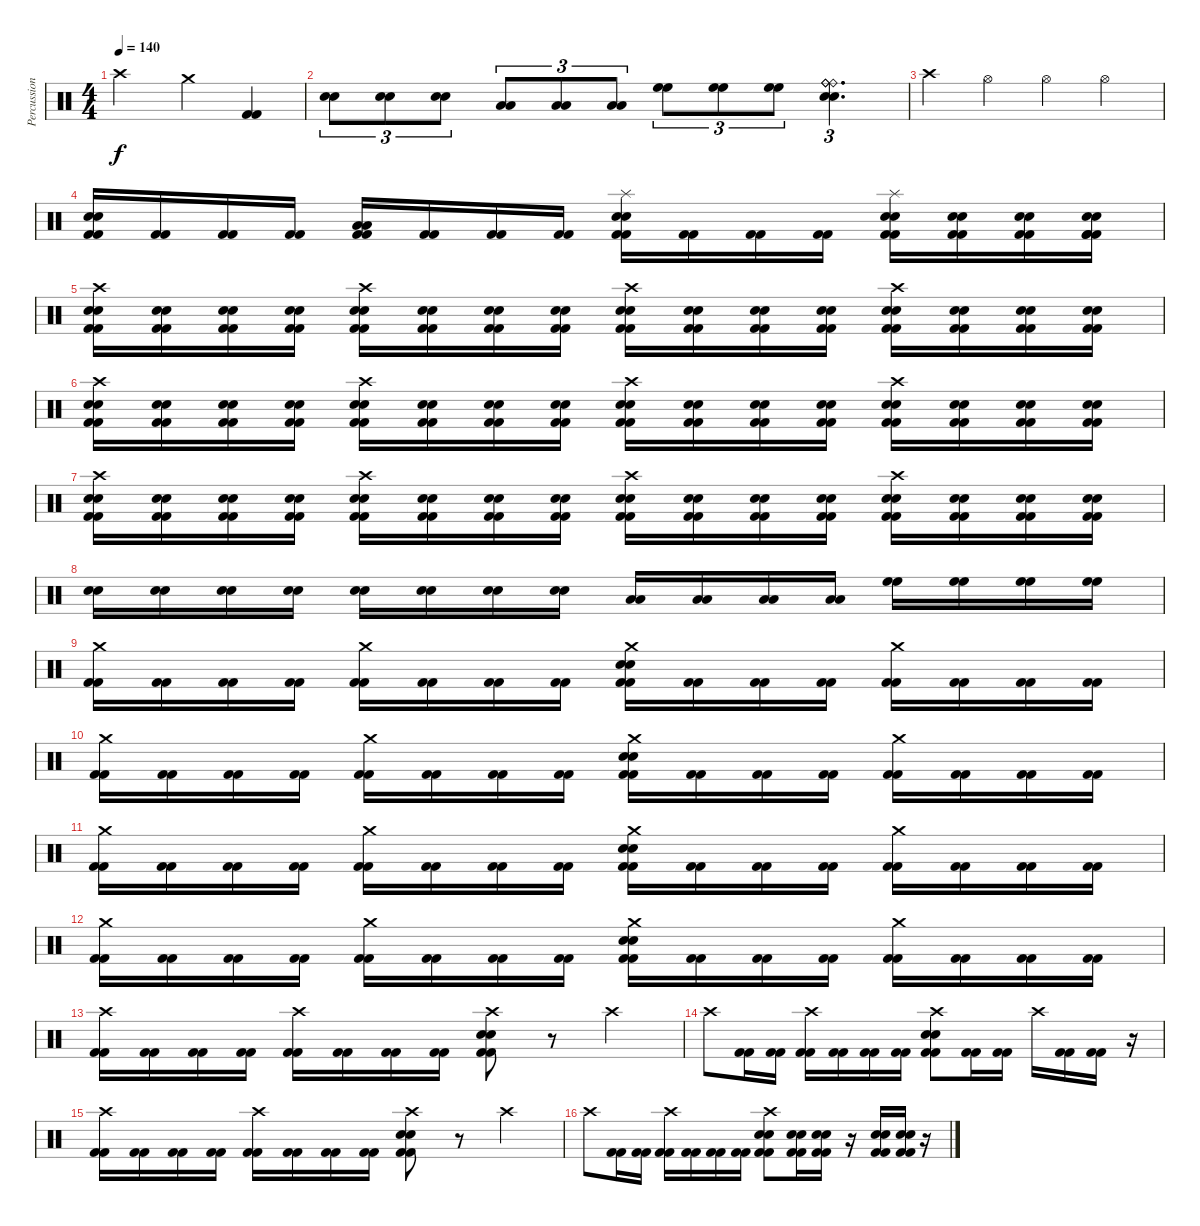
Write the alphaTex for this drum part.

\track ("Percussions" "Percussion") {instrument percussion}
\staff {score}
\articulation defaults
\ts (4 4)
\tempo 140
\clef neutral
\ks c "Crash high (hit)".2{dy f} "Crash medium (hit)".4
("Kick (hit) 2" "Kick (hit) 2").4 |
("Electric Snare (hit)" "Electric Snare (hit)").8{tu (3 2)} ("Electric Snare (hit)" "Electric Snare (hit)").8{tu (3 2)} ("Electric Snare (hit)" "Electric Snare (hit)").8{tu (3 2)} ("Low Tom (hit)" "Low Tom (hit)").8{tu (3 2)} ("Low Tom (hit)" "Low Tom (hit)").8{tu (3 2)} ("Low Tom (hit)" "Low Tom (hit)").8{tu (3 2)} ("High Floor Tom (hit)" "High Floor Tom (hit)").8{tu (3 2)} ("High Floor Tom (hit)" "High Floor Tom (hit)").8{tu (3 2)} ("High Floor Tom (hit)" "High Floor Tom (hit)").8{tu (3 2)} ("Electric Snare (hit)" "Electric Snare (hit)" "Ride (bell)" "Ride (bell)" "Ride (bell)").4{d tu (3 2)} |
"Crash high (hit)".4 "Hi-Hat (open)".4 "Hi-Hat (open)".4 "Hi-Hat (open)".4 |
("Electric Snare (hit)" "Electric Snare (hit)" "Kick (hit) 2" "Kick (hit) 2").16 ("Kick (hit) 2" "Kick (hit) 2").16 ("Kick (hit) 2" "Kick (hit) 2").16 ("Kick (hit) 2" "Kick (hit) 2").16 ("Low Tom (hit)" "Low Tom (hit)" "Kick (hit) 2" "Kick (hit) 2").16 ("Kick (hit) 2" "Kick (hit) 2").16 ("Kick (hit) 2" "Kick (hit) 2").16 ("Kick (hit) 2" "Kick (hit) 2").16 ("Electric Snare (hit)" "Electric Snare (hit)" "Kick (hit) 2" "Kick (hit) 2" "Splash (hit)").16 ("Kick (hit) 2" "Kick (hit) 2").16 ("Kick (hit) 2" "Kick (hit) 2").16 ("Kick (hit) 2" "Kick (hit) 2").16 ("Electric Snare (hit)" "Electric Snare (hit)" "Kick (hit) 2" "Kick (hit) 2" "Splash (hit)").16 ("Electric Snare (hit)" "Electric Snare (hit)" "Kick (hit) 2" "Kick (hit) 2").16 ("Electric Snare (hit)" "Electric Snare (hit)" "Kick (hit) 2" "Kick (hit) 2").16 ("Electric Snare (hit)" "Electric Snare (hit)" "Kick (hit) 2" "Kick (hit) 2" "Kick (hit) 2").16 |
("Crash high (hit)" "Electric Snare (hit)" "Electric Snare (hit)" "Kick (hit) 2" "Kick (hit) 2").16 ("Electric Snare (hit)" "Electric Snare (hit)" "Kick (hit) 2" "Kick (hit) 2").16 ("Electric Snare (hit)" "Electric Snare (hit)" "Kick (hit) 2" "Kick (hit) 2").16 ("Electric Snare (hit)" "Electric Snare (hit)" "Kick (hit) 2" "Kick (hit) 2").16 ("Crash high (hit)" "Electric Snare (hit)" "Electric Snare (hit)" "Kick (hit) 2" "Kick (hit) 2").16 ("Electric Snare (hit)" "Electric Snare (hit)" "Kick (hit) 2" "Kick (hit) 2").16 ("Electric Snare (hit)" "Electric Snare (hit)" "Kick (hit) 2" "Kick (hit) 2").16 ("Electric Snare (hit)" "Electric Snare (hit)" "Kick (hit) 2" "Kick (hit) 2").16 ("Crash high (hit)" "Electric Snare (hit)" "Electric Snare (hit)" "Kick (hit) 2" "Kick (hit) 2").16 ("Electric Snare (hit)" "Electric Snare (hit)" "Kick (hit) 2" "Kick (hit) 2").16 ("Electric Snare (hit)" "Electric Snare (hit)" "Kick (hit) 2" "Kick (hit) 2").16 ("Electric Snare (hit)" "Electric Snare (hit)" "Kick (hit) 2" "Kick (hit) 2").16 ("Crash high (hit)" "Electric Snare (hit)" "Electric Snare (hit)" "Kick (hit) 2" "Kick (hit) 2").16 ("Electric Snare (hit)" "Electric Snare (hit)" "Kick (hit) 2" "Kick (hit) 2").16 ("Electric Snare (hit)" "Electric Snare (hit)" "Kick (hit) 2" "Kick (hit) 2").16 ("Electric Snare (hit)" "Electric Snare (hit)" "Kick (hit) 2" "Kick (hit) 2").16 |
("Crash high (hit)" "Electric Snare (hit)" "Electric Snare (hit)" "Kick (hit) 2" "Kick (hit) 2").16 ("Electric Snare (hit)" "Electric Snare (hit)" "Kick (hit) 2" "Kick (hit) 2").16 ("Electric Snare (hit)" "Electric Snare (hit)" "Kick (hit) 2" "Kick (hit) 2").16 ("Electric Snare (hit)" "Electric Snare (hit)" "Kick (hit) 2" "Kick (hit) 2").16 ("Crash high (hit)" "Electric Snare (hit)" "Electric Snare (hit)" "Kick (hit) 2" "Kick (hit) 2").16 ("Electric Snare (hit)" "Electric Snare (hit)" "Kick (hit) 2" "Kick (hit) 2").16 ("Electric Snare (hit)" "Electric Snare (hit)" "Kick (hit) 2" "Kick (hit) 2").16 ("Electric Snare (hit)" "Electric Snare (hit)" "Kick (hit) 2" "Kick (hit) 2").16 ("Crash high (hit)" "Electric Snare (hit)" "Electric Snare (hit)" "Kick (hit) 2" "Kick (hit) 2").16 ("Electric Snare (hit)" "Electric Snare (hit)" "Kick (hit) 2" "Kick (hit) 2").16 ("Electric Snare (hit)" "Electric Snare (hit)" "Kick (hit) 2" "Kick (hit) 2").16 ("Electric Snare (hit)" "Electric Snare (hit)" "Kick (hit) 2" "Kick (hit) 2").16 ("Crash high (hit)" "Electric Snare (hit)" "Electric Snare (hit)" "Kick (hit) 2" "Kick (hit) 2").16 ("Electric Snare (hit)" "Electric Snare (hit)" "Kick (hit) 2" "Kick (hit) 2").16 ("Electric Snare (hit)" "Electric Snare (hit)" "Kick (hit) 2" "Kick (hit) 2").16 ("Electric Snare (hit)" "Electric Snare (hit)" "Kick (hit) 2" "Kick (hit) 2").16 |
("Crash high (hit)" "Electric Snare (hit)" "Electric Snare (hit)" "Kick (hit) 2" "Kick (hit) 2").16 ("Electric Snare (hit)" "Electric Snare (hit)" "Kick (hit) 2" "Kick (hit) 2").16 ("Electric Snare (hit)" "Electric Snare (hit)" "Kick (hit) 2" "Kick (hit) 2").16 ("Electric Snare (hit)" "Electric Snare (hit)" "Kick (hit) 2" "Kick (hit) 2").16 ("Crash high (hit)" "Electric Snare (hit)" "Electric Snare (hit)" "Kick (hit) 2" "Kick (hit) 2").16 ("Electric Snare (hit)" "Electric Snare (hit)" "Kick (hit) 2" "Kick (hit) 2").16 ("Electric Snare (hit)" "Electric Snare (hit)" "Kick (hit) 2" "Kick (hit) 2").16 ("Electric Snare (hit)" "Electric Snare (hit)" "Kick (hit) 2" "Kick (hit) 2").16 ("Crash high (hit)" "Electric Snare (hit)" "Electric Snare (hit)" "Kick (hit) 2" "Kick (hit) 2").16 ("Electric Snare (hit)" "Electric Snare (hit)" "Kick (hit) 2" "Kick (hit) 2").16 ("Electric Snare (hit)" "Electric Snare (hit)" "Kick (hit) 2" "Kick (hit) 2").16 ("Electric Snare (hit)" "Electric Snare (hit)" "Kick (hit) 2" "Kick (hit) 2").16 ("Crash high (hit)" "Electric Snare (hit)" "Electric Snare (hit)" "Kick (hit) 2" "Kick (hit) 2").16 ("Electric Snare (hit)" "Electric Snare (hit)" "Kick (hit) 2" "Kick (hit) 2").16 ("Electric Snare (hit)" "Electric Snare (hit)" "Kick (hit) 2" "Kick (hit) 2").16 ("Electric Snare (hit)" "Electric Snare (hit)" "Kick (hit) 2" "Kick (hit) 2").16 |
("Electric Snare (hit)" "Electric Snare (hit)").16 ("Electric Snare (hit)" "Electric Snare (hit)").16 ("Electric Snare (hit)" "Electric Snare (hit)").16 ("Electric Snare (hit)" "Electric Snare (hit)").16 ("Electric Snare (hit)" "Electric Snare (hit)").16 ("Electric Snare (hit)" "Electric Snare (hit)").16 ("Electric Snare (hit)" "Electric Snare (hit)").16 ("Electric Snare (hit)" "Electric Snare (hit)").16 ("Low Tom (hit)" "Low Tom (hit)").16 ("Low Tom (hit)" "Low Tom (hit)").16 ("Low Tom (hit)" "Low Tom (hit)").16 ("Low Tom (hit)" "Low Tom (hit)").16 ("High Floor Tom (hit)" "High Floor Tom (hit)").16 ("High Floor Tom (hit)" "High Floor Tom (hit)").16 ("High Floor Tom (hit)" "High Floor Tom (hit)").16 ("High Floor Tom (hit)" "High Floor Tom (hit)").16 |
("Crash medium (hit)" "Kick (hit) 2" "Kick (hit) 2").16 ("Kick (hit) 2" "Kick (hit) 2").16 ("Kick (hit) 2" "Kick (hit) 2").16 ("Kick (hit) 2" "Kick (hit) 2").16 ("Crash medium (hit)" "Kick (hit) 2" "Kick (hit) 2").16 ("Kick (hit) 2" "Kick (hit) 2").16 ("Kick (hit) 2" "Kick (hit) 2").16 ("Kick (hit) 2" "Kick (hit) 2").16 ("Crash medium (hit)" "Electric Snare (hit)" "Electric Snare (hit)" "Kick (hit) 2" "Kick (hit) 2").16 ("Kick (hit) 2" "Kick (hit) 2").16 ("Kick (hit) 2" "Kick (hit) 2").16 ("Kick (hit) 2" "Kick (hit) 2").16 ("Crash medium (hit)" "Kick (hit) 2" "Kick (hit) 2").16 ("Kick (hit) 2" "Kick (hit) 2").16 ("Kick (hit) 2" "Kick (hit) 2").16 ("Kick (hit) 2" "Kick (hit) 2").16 |
("Crash medium (hit)" "Kick (hit) 2" "Kick (hit) 2").16 ("Kick (hit) 2" "Kick (hit) 2").16 ("Kick (hit) 2" "Kick (hit) 2").16 ("Kick (hit) 2" "Kick (hit) 2").16 ("Crash medium (hit)" "Kick (hit) 2" "Kick (hit) 2").16 ("Kick (hit) 2" "Kick (hit) 2").16 ("Kick (hit) 2" "Kick (hit) 2").16 ("Kick (hit) 2" "Kick (hit) 2").16 ("Crash medium (hit)" "Electric Snare (hit)" "Electric Snare (hit)" "Kick (hit) 2" "Kick (hit) 2").16 ("Kick (hit) 2" "Kick (hit) 2").16 ("Kick (hit) 2" "Kick (hit) 2").16 ("Kick (hit) 2" "Kick (hit) 2").16 ("Crash medium (hit)" "Kick (hit) 2" "Kick (hit) 2").16 ("Kick (hit) 2" "Kick (hit) 2").16 ("Kick (hit) 2" "Kick (hit) 2").16 ("Kick (hit) 2" "Kick (hit) 2").16 |
("Crash medium (hit)" "Kick (hit) 2" "Kick (hit) 2").16 ("Kick (hit) 2" "Kick (hit) 2").16 ("Kick (hit) 2" "Kick (hit) 2").16 ("Kick (hit) 2" "Kick (hit) 2").16 ("Crash medium (hit)" "Kick (hit) 2" "Kick (hit) 2").16 ("Kick (hit) 2" "Kick (hit) 2").16 ("Kick (hit) 2" "Kick (hit) 2").16 ("Kick (hit) 2" "Kick (hit) 2").16 ("Crash medium (hit)" "Electric Snare (hit)" "Electric Snare (hit)" "Kick (hit) 2" "Kick (hit) 2").16 ("Kick (hit) 2" "Kick (hit) 2").16 ("Kick (hit) 2" "Kick (hit) 2").16 ("Kick (hit) 2" "Kick (hit) 2").16 ("Crash medium (hit)" "Kick (hit) 2" "Kick (hit) 2").16 ("Kick (hit) 2" "Kick (hit) 2").16 ("Kick (hit) 2" "Kick (hit) 2").16 ("Kick (hit) 2" "Kick (hit) 2").16 |
("Crash medium (hit)" "Kick (hit) 2" "Kick (hit) 2").16 ("Kick (hit) 2" "Kick (hit) 2").16 ("Kick (hit) 2" "Kick (hit) 2").16 ("Kick (hit) 2" "Kick (hit) 2").16 ("Crash medium (hit)" "Kick (hit) 2" "Kick (hit) 2").16 ("Kick (hit) 2" "Kick (hit) 2").16 ("Kick (hit) 2" "Kick (hit) 2").16 ("Kick (hit) 2" "Kick (hit) 2").16 ("Crash medium (hit)" "Electric Snare (hit)" "Electric Snare (hit)" "Kick (hit) 2" "Kick (hit) 2").16 ("Kick (hit) 2" "Kick (hit) 2").16 ("Kick (hit) 2" "Kick (hit) 2").16 ("Kick (hit) 2" "Kick (hit) 2").16 ("Crash medium (hit)" "Kick (hit) 2" "Kick (hit) 2").16 ("Kick (hit) 2" "Kick (hit) 2").16 ("Kick (hit) 2" "Kick (hit) 2").16 ("Kick (hit) 2" "Kick (hit) 2").16 |
("Crash high (hit)" "Kick (hit) 2" "Kick (hit) 2").16 ("Kick (hit) 2" "Kick (hit) 2").16 ("Kick (hit) 2" "Kick (hit) 2").16 ("Kick (hit) 2" "Kick (hit) 2").16 ("Crash high (hit)" "Kick (hit) 2" "Kick (hit) 2").16 ("Kick (hit) 2" "Kick (hit) 2").16 ("Kick (hit) 2" "Kick (hit) 2").16 ("Kick (hit) 2" "Kick (hit) 2").16 ("Crash high (hit)" "Electric Snare (hit)" "Electric Snare (hit)" "Kick (hit) 2" "Kick (hit) 2").8 r.8 "Crash high (hit)".4 |
"Crash high (hit)".8 ("Kick (hit) 2" "Kick (hit) 2").16 ("Kick (hit) 2" "Kick (hit) 2").16 ("Crash high (hit)" "Kick (hit) 2" "Kick (hit) 2").16 ("Kick (hit) 2" "Kick (hit) 2").16 ("Kick (hit) 2" "Kick (hit) 2").16 ("Kick (hit) 2" "Kick (hit) 2").16 ("Crash high (hit)" "Electric Snare (hit)" "Electric Snare (hit)" "Kick (hit) 2" "Kick (hit) 2").8 ("Kick (hit) 2" "Kick (hit) 2").16 ("Kick (hit) 2" "Kick (hit) 2").16 "Crash high (hit)".16 ("Kick (hit) 2" "Kick (hit) 2").16 ("Kick (hit) 2" "Kick (hit) 2").16 r.16 |
("Crash high (hit)" "Kick (hit) 2" "Kick (hit) 2").16 ("Kick (hit) 2" "Kick (hit) 2").16 ("Kick (hit) 2" "Kick (hit) 2").16 ("Kick (hit) 2" "Kick (hit) 2").16 ("Crash high (hit)" "Kick (hit) 2" "Kick (hit) 2").16 ("Kick (hit) 2" "Kick (hit) 2").16 ("Kick (hit) 2" "Kick (hit) 2").16 ("Kick (hit) 2" "Kick (hit) 2").16 ("Crash high (hit)" "Electric Snare (hit)" "Electric Snare (hit)" "Kick (hit) 2" "Kick (hit) 2").8 r.8 "Crash high (hit)".4 |
"Crash high (hit)".8 ("Kick (hit) 2" "Kick (hit) 2").16 ("Kick (hit) 2" "Kick (hit) 2").16 ("Crash high (hit)" "Kick (hit) 2" "Kick (hit) 2").16 ("Kick (hit) 2" "Kick (hit) 2").16 ("Kick (hit) 2" "Kick (hit) 2").16 ("Kick (hit) 2" "Kick (hit) 2").16 ("Crash high (hit)" "Electric Snare (hit)" "Electric Snare (hit)" "Kick (hit) 2" "Kick (hit) 2").8 ("Electric Snare (hit)" "Electric Snare (hit)" "Kick (hit) 2" "Kick (hit) 2").16 ("Electric Snare (hit)" "Electric Snare (hit)" "Kick (hit) 2" "Kick (hit) 2").16 r.16 ("Electric Snare (hit)" "Electric Snare (hit)" "Kick (hit) 2" "Kick (hit) 2").16 ("Electric Snare (hit)" "Electric Snare (hit)" "Kick (hit) 2" "Kick (hit) 2").16 r.16
